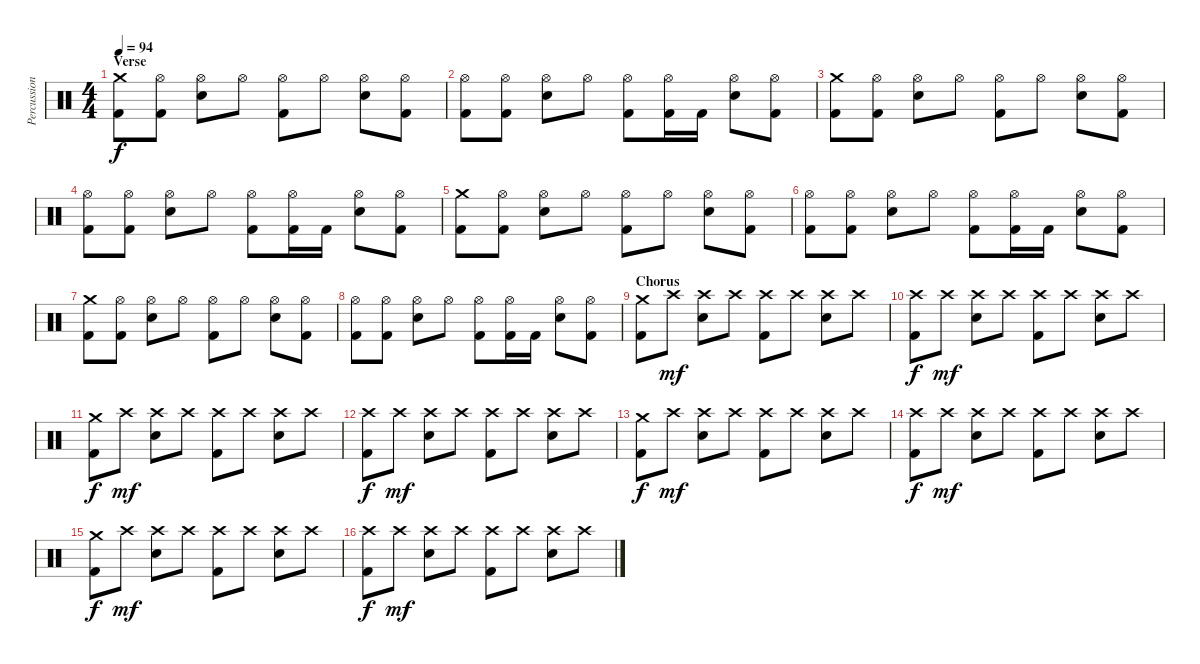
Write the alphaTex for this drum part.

\track ("Percussion" "Percussion") {instrument percussion}
\staff {score}
\articulation defaults
\ts (4 4)
\section ("" "Verse")
\tempo 94
\clef neutral
\ks c
("Crash medium (hit)" "Kick (hit) 2").8{dy f} ("Hi-Hat (open)" "Kick (hit) 2").8 ("Hi-Hat (open)" "Electric Snare (hit)").8 "Hi-Hat (open)".8 ("Hi-Hat (open)" "Kick (hit) 2").8 "Hi-Hat (open)".8 ("Hi-Hat (open)" "Electric Snare (hit)").8 ("Hi-Hat (open)" "Kick (hit) 2").8 |
("Hi-Hat (open)" "Kick (hit) 2").8 ("Hi-Hat (open)" "Kick (hit) 2").8 ("Hi-Hat (open)" "Electric Snare (hit)").8 "Hi-Hat (open)".8 ("Hi-Hat (open)" "Kick (hit) 2").8 ("Hi-Hat (open)" "Kick (hit) 2").16 "Kick (hit) 2".16 ("Hi-Hat (open)" "Electric Snare (hit)").8 ("Hi-Hat (open)" "Kick (hit) 2").8 |
("Crash medium (hit)" "Kick (hit) 2").8 ("Hi-Hat (open)" "Kick (hit) 2").8 ("Hi-Hat (open)" "Electric Snare (hit)").8 "Hi-Hat (open)".8 ("Hi-Hat (open)" "Kick (hit) 2").8 "Hi-Hat (open)".8 ("Hi-Hat (open)" "Electric Snare (hit)").8 ("Hi-Hat (open)" "Kick (hit) 2").8 |
("Hi-Hat (open)" "Kick (hit) 2").8 ("Hi-Hat (open)" "Kick (hit) 2").8 ("Hi-Hat (open)" "Electric Snare (hit)").8 "Hi-Hat (open)".8 ("Hi-Hat (open)" "Kick (hit) 2").8 ("Hi-Hat (open)" "Kick (hit) 2").16 "Kick (hit) 2".16 ("Hi-Hat (open)" "Electric Snare (hit)").8 ("Hi-Hat (open)" "Kick (hit) 2").8 |
("Crash medium (hit)" "Kick (hit) 2").8 ("Hi-Hat (open)" "Kick (hit) 2").8 ("Hi-Hat (open)" "Electric Snare (hit)").8 "Hi-Hat (open)".8 ("Hi-Hat (open)" "Kick (hit) 2").8 "Hi-Hat (open)".8 ("Hi-Hat (open)" "Electric Snare (hit)").8 ("Hi-Hat (open)" "Kick (hit) 2").8 |
("Hi-Hat (open)" "Kick (hit) 2").8 ("Hi-Hat (open)" "Kick (hit) 2").8 ("Hi-Hat (open)" "Electric Snare (hit)").8 "Hi-Hat (open)".8 ("Hi-Hat (open)" "Kick (hit) 2").8 ("Hi-Hat (open)" "Kick (hit) 2").16 "Kick (hit) 2".16 ("Hi-Hat (open)" "Electric Snare (hit)").8 ("Hi-Hat (open)" "Kick (hit) 2").8 |
("Crash medium (hit)" "Kick (hit) 2").8 ("Hi-Hat (open)" "Kick (hit) 2").8 ("Hi-Hat (open)" "Electric Snare (hit)").8 "Hi-Hat (open)".8 ("Hi-Hat (open)" "Kick (hit) 2").8 "Hi-Hat (open)".8 ("Hi-Hat (open)" "Electric Snare (hit)").8 ("Hi-Hat (open)" "Kick (hit) 2").8 |
("Hi-Hat (open)" "Kick (hit) 2").8 ("Hi-Hat (open)" "Kick (hit) 2").8 ("Hi-Hat (open)" "Electric Snare (hit)").8 "Hi-Hat (open)".8 ("Hi-Hat (open)" "Kick (hit) 2").8 ("Hi-Hat (open)" "Kick (hit) 2").16 "Kick (hit) 2".16 ("Hi-Hat (open)" "Electric Snare (hit)").8 ("Hi-Hat (open)" "Kick (hit) 2").8 |
\section ("" "Chorus")
("Crash medium (hit)" "Kick (hit) 2").8 "Crash high (hit)".8{dy mf} ("Crash high (hit)" "Electric Snare (hit)").8 "Crash high (hit)".8 ("Crash high (hit)" "Kick (hit) 2").8 "Crash high (hit)".8 ("Crash high (hit)" "Electric Snare (hit)").8 "Crash high (hit)".8 |
("Crash high (hit)" "Kick (hit) 2").8{dy f} "Crash high (hit)".8{dy mf} ("Crash high (hit)" "Electric Snare (hit)").8 "Crash high (hit)".8 ("Crash high (hit)" "Kick (hit) 2").8 "Crash high (hit)".8 ("Crash high (hit)" "Electric Snare (hit)").8 "Crash high (hit)".8 |
("Crash medium (hit)" "Kick (hit) 2").8{dy f} "Crash high (hit)".8{dy mf} ("Crash high (hit)" "Electric Snare (hit)").8 "Crash high (hit)".8 ("Crash high (hit)" "Kick (hit) 2").8 "Crash high (hit)".8 ("Crash high (hit)" "Electric Snare (hit)").8 "Crash high (hit)".8 |
("Crash high (hit)" "Kick (hit) 2").8{dy f} "Crash high (hit)".8{dy mf} ("Crash high (hit)" "Electric Snare (hit)").8 "Crash high (hit)".8 ("Crash high (hit)" "Kick (hit) 2").8 "Crash high (hit)".8 ("Crash high (hit)" "Electric Snare (hit)").8 "Crash high (hit)".8 |
("Crash medium (hit)" "Kick (hit) 2").8{dy f} "Crash high (hit)".8{dy mf} ("Crash high (hit)" "Electric Snare (hit)").8 "Crash high (hit)".8 ("Crash high (hit)" "Kick (hit) 2").8 "Crash high (hit)".8 ("Crash high (hit)" "Electric Snare (hit)").8 "Crash high (hit)".8 |
("Crash high (hit)" "Kick (hit) 2").8{dy f} "Crash high (hit)".8{dy mf} ("Crash high (hit)" "Electric Snare (hit)").8 "Crash high (hit)".8 ("Crash high (hit)" "Kick (hit) 2").8 "Crash high (hit)".8 ("Crash high (hit)" "Electric Snare (hit)").8 "Crash high (hit)".8 |
("Crash medium (hit)" "Kick (hit) 2").8{dy f} "Crash high (hit)".8{dy mf} ("Crash high (hit)" "Electric Snare (hit)").8 "Crash high (hit)".8 ("Crash high (hit)" "Kick (hit) 2").8 "Crash high (hit)".8 ("Crash high (hit)" "Electric Snare (hit)").8 "Crash high (hit)".8 |
("Crash high (hit)" "Kick (hit) 2").8{dy f} "Crash high (hit)".8{dy mf} ("Crash high (hit)" "Electric Snare (hit)").8 "Crash high (hit)".8 ("Crash high (hit)" "Kick (hit) 2").8 "Crash high (hit)".8 ("Crash high (hit)" "Electric Snare (hit)").8 "Crash high (hit)".8
